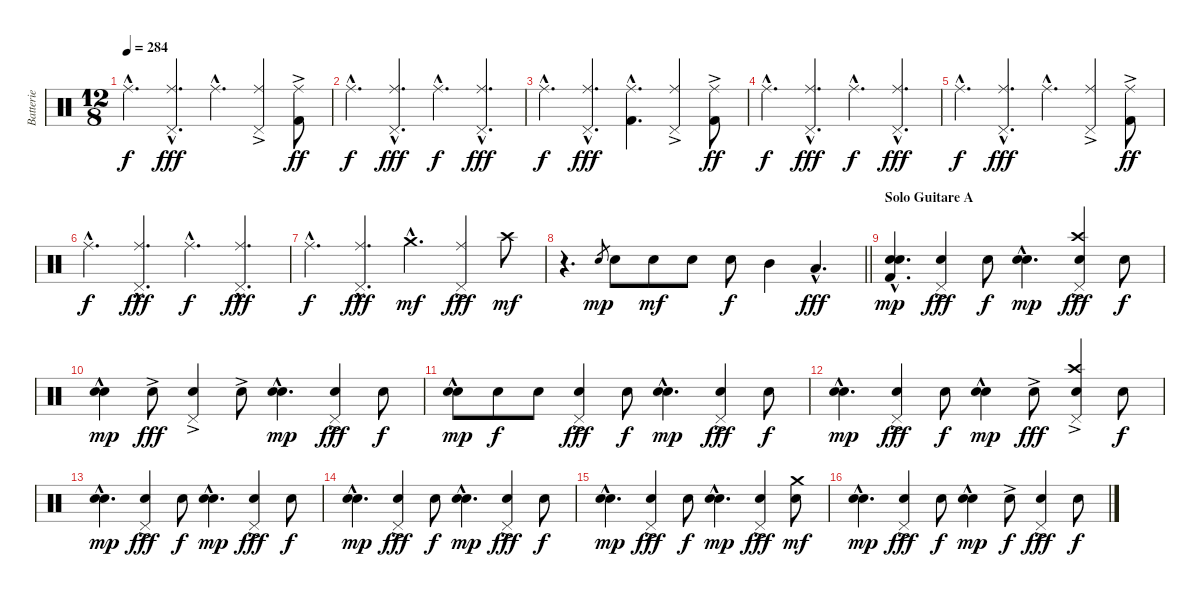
\track ("Batterie" "Batterie") {instrument percussion}
\staff {score}
\articulation defaults
\ts (12 8)
\tempo 284
\clef neutral
\ks c "Ride (middle)"{hac}.4{d dy f}
("Ride (middle)"{hac} "Pedal Hi-Hat (hit)"{hac}).4{d dy fff} "Ride (middle)"{hac}.4{d} ("Ride (middle)" "Pedal Hi-Hat (hit)"{ac}).4 ("Ride (middle)"{ac} "Kick (hit) 2"{ac}).8{dy ff} |
"Ride (middle)"{hac}.4{d dy f} ("Ride (middle)"{hac} "Pedal Hi-Hat (hit)"{hac}).4{d dy fff} "Ride (middle)"{hac}.4{d dy f} ("Ride (middle)"{hac} "Pedal Hi-Hat (hit)"{hac}).4{d dy fff} |
"Ride (middle)"{hac}.4{d dy f} ("Ride (middle)"{hac} "Pedal Hi-Hat (hit)"{hac}).4{d dy fff} ("Ride (middle)"{hac} "Kick (hit) 2"{hac}).4{d} ("Ride (middle)" "Pedal Hi-Hat (hit)"{ac}).4 ("Ride (middle)"{ac} "Kick (hit) 2"{ac}).8{dy ff} |
"Ride (middle)"{hac}.4{d dy f} ("Ride (middle)"{hac} "Pedal Hi-Hat (hit)"{hac}).4{d dy fff} "Ride (middle)"{hac}.4{d dy f} ("Ride (middle)"{hac} "Pedal Hi-Hat (hit)"{hac}).4{d dy fff} |
"Ride (middle)"{hac}.4{d dy f} ("Ride (middle)"{hac} "Pedal Hi-Hat (hit)"{hac}).4{d dy fff} "Ride (middle)"{hac}.4{d} ("Ride (middle)" "Pedal Hi-Hat (hit)"{ac}).4 ("Ride (middle)"{ac} "Kick (hit) 2"{ac}).8{dy ff} |
"Ride (middle)"{hac}.4{d dy f} ("Ride (middle)"{hac} "Pedal Hi-Hat (hit)"{hac}).4{d dy fff} "Ride (middle)"{hac}.4{d dy f} ("Ride (middle)"{hac} "Pedal Hi-Hat (hit)"{hac}).4{d dy fff} |
"Ride (middle)"{hac}.4{d dy f} ("Ride (middle)"{hac} "Pedal Hi-Hat (hit)"{hac}).4{d dy fff} "Crash medium (hit)"{hac}.4{d dy mf} ("Ride (middle)" "Pedal Hi-Hat (hit)"{ac}).4{dy fff} "Crash high (hit)".8{dy mf} |
\barLineRight lightlight
r.4{d} "Snare (hit) 2".8{gr dy mp} "Snare (hit) 2".8 "Snare (hit) 2".8{dy mf} "Snare (hit) 2".8 "Snare (hit) 2".8{dy f} "Mid Tom (hit)".4 "Low Floor Tom (hit)"{hac}.4{d dy fff} |
\section ("" "Solo Guitare A")
("Electric Snare (hit)"{hac} "Snare (hit) 2"{hac} "Kick (hit) 2"{hac}).4{d dy mp volume 11 balance 8} ("Pedal Hi-Hat (hit)"{ac} "Snare (hit) 2").4{dy fff} "Snare (hit) 2".8{dy f} ("Electric Snare (hit)"{hac} "Snare (hit) 2"{hac}).4{d dy mp} ("Crash high (hit)" "Pedal Hi-Hat (hit)"{ac} "Snare (hit) 2").4{dy fff} "Snare (hit) 2".8{dy f} |
("Electric Snare (hit)"{hac} "Snare (hit) 2").4{dy mp} "Snare (hit) 2"{ac}.8{dy fff} ("Pedal Hi-Hat (hit)"{ac} "Snare (hit) 2").4 "Snare (hit) 2"{ac}.8 ("Electric Snare (hit)"{hac} "Snare (hit) 2"{hac}).4{d dy mp} ("Pedal Hi-Hat (hit)"{ac} "Snare (hit) 2").4{dy fff} "Snare (hit) 2".8{dy f} |
("Electric Snare (hit)"{hac} "Snare (hit) 2").8{dy mp} "Snare (hit) 2".8{dy f} "Snare (hit) 2".8 ("Pedal Hi-Hat (hit)"{ac} "Snare (hit) 2"{ac}).4{dy fff} "Snare (hit) 2".8{dy f} ("Electric Snare (hit)"{hac} "Snare (hit) 2"{hac}).4{d dy mp} ("Pedal Hi-Hat (hit)"{ac} "Snare (hit) 2").4{dy fff} "Snare (hit) 2".8{dy f} |
("Electric Snare (hit)"{hac} "Snare (hit) 2"{hac}).4{d dy mp} ("Pedal Hi-Hat (hit)"{ac} "Snare (hit) 2").4{dy fff} "Snare (hit) 2".8{dy f} ("Electric Snare (hit)"{hac} "Snare (hit) 2").4{dy mp} "Snare (hit) 2"{ac}.8{dy fff} ("Crash high (hit)" "Pedal Hi-Hat (hit)"{ac} "Snare (hit) 2"{ac}).4 "Snare (hit) 2".8{dy f} |
("Electric Snare (hit)"{hac} "Snare (hit) 2"{hac}).4{d dy mp} ("Pedal Hi-Hat (hit)"{ac} "Snare (hit) 2").4{dy fff} "Snare (hit) 2".8{dy f} ("Electric Snare (hit)"{hac} "Snare (hit) 2"{hac}).4{d dy mp} ("Pedal Hi-Hat (hit)"{ac} "Snare (hit) 2").4{dy fff} "Snare (hit) 2".8{dy f} |
("Electric Snare (hit)"{hac} "Snare (hit) 2"{hac}).4{d dy mp} ("Pedal Hi-Hat (hit)"{ac} "Snare (hit) 2").4{dy fff} "Snare (hit) 2".8{dy f} ("Electric Snare (hit)"{hac} "Snare (hit) 2"{hac}).4{d dy mp} ("Pedal Hi-Hat (hit)"{ac} "Snare (hit) 2").4{dy fff} "Snare (hit) 2".8{dy f} |
("Electric Snare (hit)"{hac} "Snare (hit) 2"{hac}).4{d dy mp} ("Pedal Hi-Hat (hit)"{ac} "Snare (hit) 2").4{dy fff} "Snare (hit) 2".8{dy f} ("Electric Snare (hit)"{hac} "Snare (hit) 2"{hac}).4{d dy mp} ("Pedal Hi-Hat (hit)"{ac} "Snare (hit) 2").4{dy fff} ("Crash medium (hit)" "Snare (hit) 2").8{dy mf} |
("Electric Snare (hit)"{hac} "Snare (hit) 2"{hac}).4{d dy mp} ("Pedal Hi-Hat (hit)"{ac} "Snare (hit) 2").4{dy fff} "Snare (hit) 2".8{dy f} ("Electric Snare (hit)"{hac} "Snare (hit) 2").4{dy mp} "Snare (hit) 2"{ac}.8{dy f} ("Pedal Hi-Hat (hit)"{ac} "Snare (hit) 2"{ac}).4{dy fff} "Snare (hit) 2".8{dy f}
